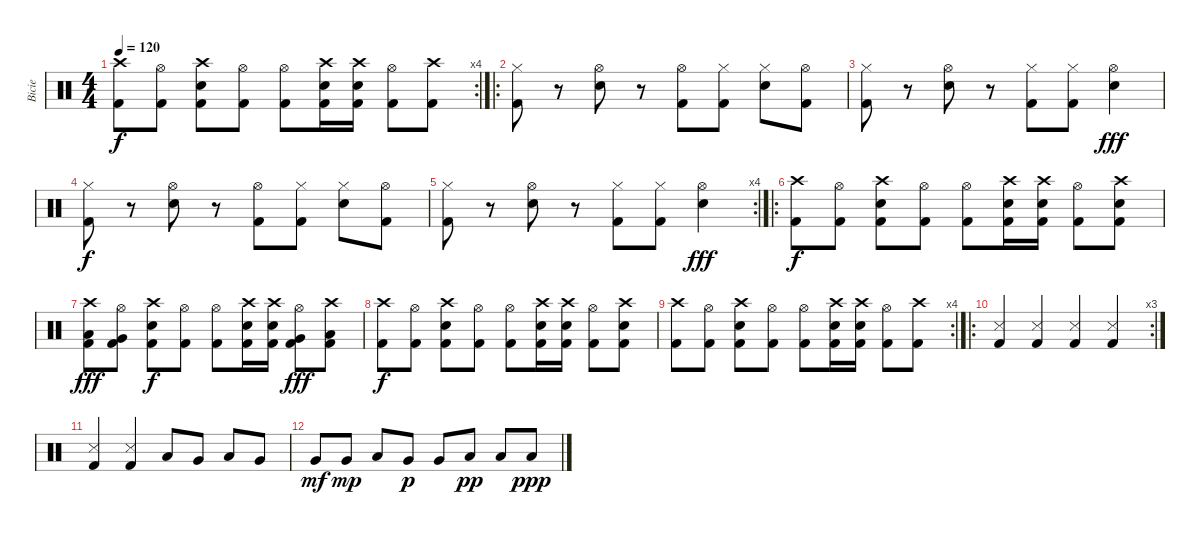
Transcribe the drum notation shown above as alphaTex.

\track ("Bicie" "Bicie") {instrument percussion}
\staff {score}
\articulation defaults
\rc 4
\ts (4 4)
\tempo 120
\clef neutral
\ks c
("Crash high (hit)" "Kick (hit) 2").8{dy f} ("Hi-Hat (open)" "Kick (hit) 2").8 ("Crash high (hit)" "Snare (hit) 2" "Kick (hit) 2").8 ("Hi-Hat (open)" "Kick (hit) 2").8 ("Hi-Hat (open)" "Kick (hit) 2").8 ("Crash high (hit)" "Snare (hit) 2" "Kick (hit) 2").16 ("Crash high (hit)" "Snare (hit) 2" "Kick (hit) 2").16 ("Hi-Hat (open)" "Kick (hit) 2").8 ("Crash high (hit)" "Kick (hit) 2").8 |
\ro
("Hi-Hat (closed)" "Kick (hit) 2").8 r.8 ("Hi-Hat (open)" "Snare (hit) 2").8 r.8 ("Hi-Hat (open)" "Kick (hit) 2").8 ("Hi-Hat (closed)" "Kick (hit) 2").8 ("Hi-Hat (closed)" "Snare (hit) 2").8 ("Hi-Hat (open)" "Kick (hit) 2").8 |
("Hi-Hat (closed)" "Kick (hit) 2").8 r.8 ("Hi-Hat (open)" "Snare (hit) 2").8 r.8 ("Hi-Hat (closed)" "Kick (hit) 2").8 ("Hi-Hat (closed)" "Kick (hit) 2").8 ("Hi-Hat (open)" "Snare (hit) 2").4{dy fff} |
("Hi-Hat (closed)" "Kick (hit) 2").8{dy f} r.8 ("Hi-Hat (open)" "Snare (hit) 2").8 r.8 ("Hi-Hat (open)" "Kick (hit) 2").8 ("Hi-Hat (closed)" "Kick (hit) 2").8 ("Hi-Hat (closed)" "Snare (hit) 2").8 ("Hi-Hat (open)" "Kick (hit) 2").8 |
\rc 4
("Hi-Hat (closed)" "Kick (hit) 2").8 r.8 ("Hi-Hat (open)" "Snare (hit) 2").8 r.8 ("Hi-Hat (closed)" "Kick (hit) 2").8 ("Hi-Hat (closed)" "Kick (hit) 2").8 ("Hi-Hat (open)" "Snare (hit) 2").4{dy fff} |
\ro
("Crash high (hit)" "Kick (hit) 2").8{dy f} ("Hi-Hat (open)" "Kick (hit) 2").8 ("Crash high (hit)" "Snare (hit) 2" "Kick (hit) 2").8 ("Hi-Hat (open)" "Kick (hit) 2").8 ("Hi-Hat (open)" "Kick (hit) 2").8 ("Crash high (hit)" "Snare (hit) 2" "Kick (hit) 2").16 ("Crash high (hit)" "Snare (hit) 2" "Kick (hit) 2").16 ("Hi-Hat (open)" "Kick (hit) 2").8 ("Crash high (hit)" "Snare (hit) 2" "Kick (hit) 2").8 |
("Crash high (hit)" "Low Tom (hit)" "Kick (hit) 2").8{dy fff} ("Hi-Hat (open)" "Very Low Tom (hit)" "Kick (hit) 2").8 ("Crash high (hit)" "Snare (hit) 2" "Kick (hit) 2").8{dy f} ("Hi-Hat (open)" "Kick (hit) 2").8 ("Hi-Hat (open)" "Kick (hit) 2").8 ("Crash high (hit)" "Snare (hit) 2" "Kick (hit) 2").16 ("Crash high (hit)" "Snare (hit) 2" "Kick (hit) 2").16 ("Hi-Hat (open)" "Very Low Tom (hit)" "Kick (hit) 2").8{dy fff} ("Crash high (hit)" "Low Floor Tom (hit)" "Kick (hit) 2").8 |
("Crash high (hit)" "Kick (hit) 2").8{dy f} ("Hi-Hat (open)" "Kick (hit) 2").8 ("Crash high (hit)" "Snare (hit) 2" "Kick (hit) 2").8 ("Hi-Hat (open)" "Kick (hit) 2").8 ("Hi-Hat (open)" "Kick (hit) 2").8 ("Crash high (hit)" "Snare (hit) 2" "Kick (hit) 2").16 ("Crash high (hit)" "Snare (hit) 2" "Kick (hit) 2").16 ("Hi-Hat (open)" "Kick (hit) 2").8 ("Crash high (hit)" "Snare (hit) 2" "Kick (hit) 2").8 |
\rc 4
("Crash high (hit)" "Kick (hit) 2").8 ("Hi-Hat (open)" "Kick (hit) 2").8 ("Crash high (hit)" "Snare (hit) 2" "Kick (hit) 2").8 ("Hi-Hat (open)" "Kick (hit) 2").8 ("Hi-Hat (open)" "Kick (hit) 2").8 ("Crash high (hit)" "Snare (hit) 2" "Kick (hit) 2").16 ("Crash high (hit)" "Snare (hit) 2" "Kick (hit) 2").16 ("Hi-Hat (open)" "Kick (hit) 2").8 ("Crash high (hit)" "Kick (hit) 2").8 |
\ro
\rc 3
("Snare (side stick) 3" "Kick (hit) 2").4 ("Snare (side stick) 3" "Kick (hit) 2").4 ("Snare (side stick) 3" "Kick (hit) 2").4 ("Snare (side stick) 3" "Kick (hit) 2").4 |
("Snare (side stick) 3" "Kick (hit) 2").4 ("Snare (side stick) 3" "Kick (hit) 2").4 "Low Tom (hit)".8 "Very Low Tom (hit)".8 "Low Tom (hit)".8 "Very Low Tom (hit)".8 |
"Very Low Tom (hit)".8{dy mf} "Very Low Tom (hit)".8{dy mp} "Low Tom (hit)".8 "Very Low Tom (hit)".8{dy p} "Very Low Tom (hit)".8 "Low Tom (hit)".8{dy pp} "Low Floor Tom (hit)".8 "Low Floor Tom (hit)".8{dy ppp}
